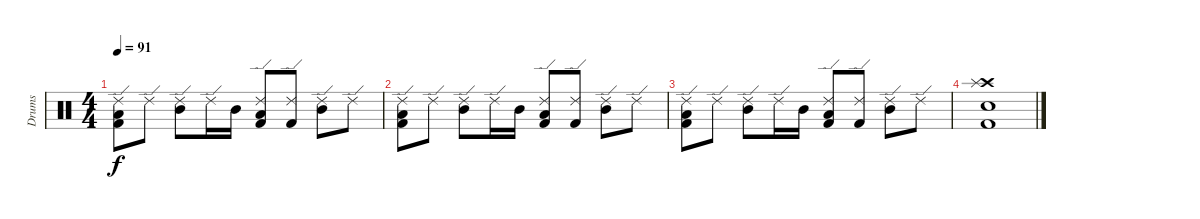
\track ("Drums" "Drums") {instrument percussion}
\staff {score}
\articulation defaults
\ts (4 4)
\tempo 91
\clef neutral
\ks c
("Ride (edge) 2" "Kick (hit) 2" "Low Tom (hit)").8{dy f} "Ride (edge) 2".8 ("Ride (edge) 2" "Mid Tom (hit)").8 "Ride (edge) 2".16 "Mid Tom (hit)".16 ("Ride (edge) 2" "Kick (hit) 2" "Low Tom (hit)").8 ("Ride (edge) 2" "Kick (hit) 2").8 ("Ride (edge) 2" "Mid Tom (hit)").8 "Ride (edge) 2".8 |
("Ride (edge) 2" "Kick (hit) 2" "Low Tom (hit)").8 "Ride (edge) 2".8 ("Ride (edge) 2" "Mid Tom (hit)").8 "Ride (edge) 2".16 "Mid Tom (hit)".16 ("Ride (edge) 2" "Kick (hit) 2" "Low Tom (hit)").8 ("Ride (edge) 2" "Kick (hit) 2").8 ("Ride (edge) 2" "Mid Tom (hit)").8 "Ride (edge) 2".8 |
("Ride (edge) 2" "Kick (hit) 2" "Low Tom (hit)").8 "Ride (edge) 2".8 ("Ride (edge) 2" "Mid Tom (hit)").8 "Ride (edge) 2".16 "Mid Tom (hit)".16 ("Ride (edge) 2" "Kick (hit) 2" "Low Tom (hit)").8 ("Ride (edge) 2" "Kick (hit) 2").8 ("Ride (edge) 2" "Mid Tom (hit)").8 "Ride (edge) 2".8 |
("Crash high (hit)" "Snare (hit) 2" "Kick (hit) 2" "Splash (hit)").1
